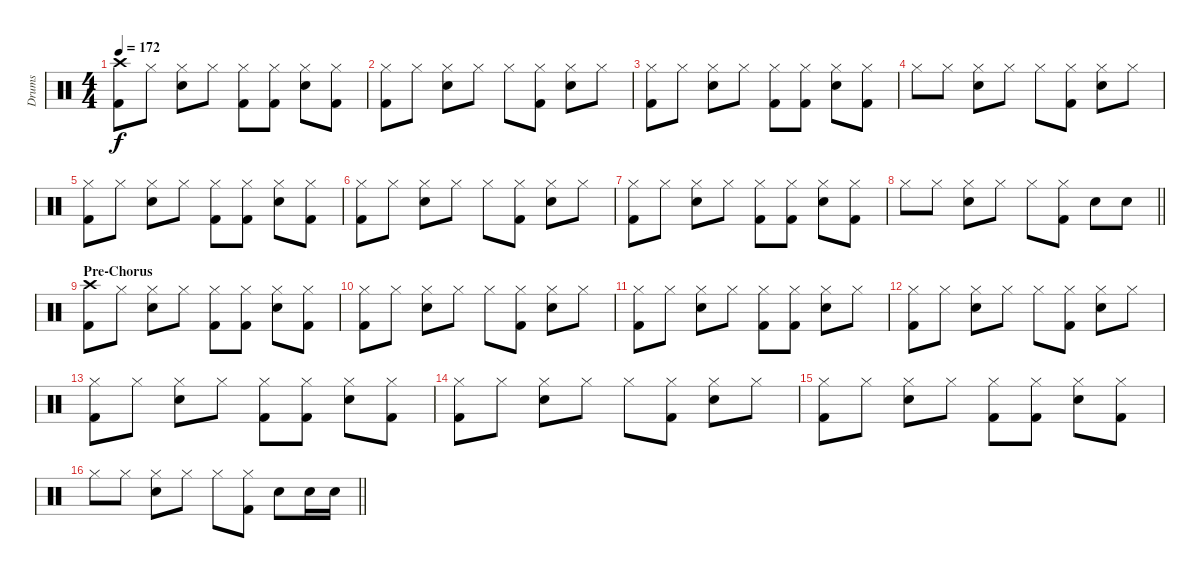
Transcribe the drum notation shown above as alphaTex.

\track ("Drums" "Drums") {instrument percussion}
\staff {score}
\articulation defaults
\ts (4 4)
\tempo 172
\clef neutral
\ks c
("Crash high (hit)" "Kick (hit) 2").8{dy f} "Hi-Hat (closed)".8 ("Hi-Hat (closed)" "Electric Snare (hit)").8 "Hi-Hat (closed)".8 ("Hi-Hat (closed)" "Kick (hit) 2").8 ("Hi-Hat (closed)" "Kick (hit) 2").8 ("Hi-Hat (closed)" "Electric Snare (hit)").8 ("Hi-Hat (closed)" "Kick (hit) 2").8 |
("Hi-Hat (closed)" "Kick (hit) 2").8 "Hi-Hat (closed)".8 ("Hi-Hat (closed)" "Electric Snare (hit)").8 "Hi-Hat (closed)".8 "Hi-Hat (closed)".8 ("Hi-Hat (closed)" "Kick (hit) 2").8 ("Hi-Hat (closed)" "Electric Snare (hit)").8 "Hi-Hat (closed)".8 |
("Hi-Hat (closed)" "Kick (hit) 2").8 "Hi-Hat (closed)".8 ("Hi-Hat (closed)" "Electric Snare (hit)").8 "Hi-Hat (closed)".8 ("Hi-Hat (closed)" "Kick (hit) 2").8 ("Hi-Hat (closed)" "Kick (hit) 2").8 ("Hi-Hat (closed)" "Electric Snare (hit)").8 ("Hi-Hat (closed)" "Kick (hit) 2").8 |
"Hi-Hat (closed)".8 "Hi-Hat (closed)".8 ("Hi-Hat (closed)" "Electric Snare (hit)").8 "Hi-Hat (closed)".8 "Hi-Hat (closed)".8 ("Hi-Hat (closed)" "Kick (hit) 2").8 ("Hi-Hat (closed)" "Electric Snare (hit)").8 "Hi-Hat (closed)".8 |
("Hi-Hat (closed)" "Kick (hit) 2").8 "Hi-Hat (closed)".8 ("Hi-Hat (closed)" "Electric Snare (hit)").8 "Hi-Hat (closed)".8 ("Hi-Hat (closed)" "Kick (hit) 2").8 ("Hi-Hat (closed)" "Kick (hit) 2").8 ("Hi-Hat (closed)" "Electric Snare (hit)").8 ("Hi-Hat (closed)" "Kick (hit) 2").8 |
("Hi-Hat (closed)" "Kick (hit) 2").8 "Hi-Hat (closed)".8 ("Hi-Hat (closed)" "Electric Snare (hit)").8 "Hi-Hat (closed)".8 "Hi-Hat (closed)".8 ("Hi-Hat (closed)" "Kick (hit) 2").8 ("Hi-Hat (closed)" "Electric Snare (hit)").8 "Hi-Hat (closed)".8 |
("Hi-Hat (closed)" "Kick (hit) 2").8 "Hi-Hat (closed)".8 ("Hi-Hat (closed)" "Electric Snare (hit)").8 "Hi-Hat (closed)".8 ("Hi-Hat (closed)" "Kick (hit) 2").8 ("Hi-Hat (closed)" "Kick (hit) 2").8 ("Hi-Hat (closed)" "Electric Snare (hit)").8 ("Hi-Hat (closed)" "Kick (hit) 2").8 |
\barLineRight lightlight "Hi-Hat (closed)".8 "Hi-Hat (closed)".8
("Hi-Hat (closed)" "Electric Snare (hit)").8 "Hi-Hat (closed)".8 "Hi-Hat (closed)".8 ("Hi-Hat (closed)" "Kick (hit) 2").8 "Electric Snare (hit)".8 "Electric Snare (hit)".8 |
\section ("" "Pre-Chorus")
("Crash high (hit)" "Kick (hit) 2").8 "Hi-Hat (closed)".8 ("Hi-Hat (closed)" "Electric Snare (hit)").8 "Hi-Hat (closed)".8 ("Hi-Hat (closed)" "Kick (hit) 2").8 ("Hi-Hat (closed)" "Kick (hit) 2").8 ("Hi-Hat (closed)" "Electric Snare (hit)").8 ("Hi-Hat (closed)" "Kick (hit) 2").8 |
("Hi-Hat (closed)" "Kick (hit) 2").8 "Hi-Hat (closed)".8 ("Hi-Hat (closed)" "Electric Snare (hit)").8 "Hi-Hat (closed)".8 "Hi-Hat (closed)".8 ("Hi-Hat (closed)" "Kick (hit) 2").8 ("Hi-Hat (closed)" "Electric Snare (hit)").8 "Hi-Hat (closed)".8 |
("Hi-Hat (closed)" "Kick (hit) 2").8 "Hi-Hat (closed)".8 ("Hi-Hat (closed)" "Electric Snare (hit)").8 "Hi-Hat (closed)".8 ("Hi-Hat (closed)" "Kick (hit) 2").8 ("Hi-Hat (closed)" "Kick (hit) 2").8 ("Hi-Hat (closed)" "Electric Snare (hit)").8 "Hi-Hat (closed)".8 |
("Hi-Hat (closed)" "Kick (hit) 2").8 "Hi-Hat (closed)".8 ("Hi-Hat (closed)" "Electric Snare (hit)").8 "Hi-Hat (closed)".8 "Hi-Hat (closed)".8 ("Hi-Hat (closed)" "Kick (hit) 2").8 ("Hi-Hat (closed)" "Electric Snare (hit)").8 "Hi-Hat (closed)".8 |
("Hi-Hat (closed)" "Kick (hit) 2").8 "Hi-Hat (closed)".8 ("Hi-Hat (closed)" "Electric Snare (hit)").8 "Hi-Hat (closed)".8 ("Hi-Hat (closed)" "Kick (hit) 2").8 ("Hi-Hat (closed)" "Kick (hit) 2").8 ("Hi-Hat (closed)" "Electric Snare (hit)").8 ("Hi-Hat (closed)" "Kick (hit) 2").8 |
("Hi-Hat (closed)" "Kick (hit) 2").8 "Hi-Hat (closed)".8 ("Hi-Hat (closed)" "Electric Snare (hit)").8 "Hi-Hat (closed)".8 "Hi-Hat (closed)".8 ("Hi-Hat (closed)" "Kick (hit) 2").8 ("Hi-Hat (closed)" "Electric Snare (hit)").8 "Hi-Hat (closed)".8 |
("Hi-Hat (closed)" "Kick (hit) 2").8 "Hi-Hat (closed)".8 ("Hi-Hat (closed)" "Electric Snare (hit)").8 "Hi-Hat (closed)".8 ("Hi-Hat (closed)" "Kick (hit) 2").8 ("Hi-Hat (closed)" "Kick (hit) 2").8 ("Hi-Hat (closed)" "Electric Snare (hit)").8 ("Hi-Hat (closed)" "Kick (hit) 2").8 |
\barLineRight lightlight "Hi-Hat (closed)".8 "Hi-Hat (closed)".8
("Hi-Hat (closed)" "Electric Snare (hit)").8 "Hi-Hat (closed)".8 "Hi-Hat (closed)".8 ("Hi-Hat (closed)" "Kick (hit) 2").8 "Electric Snare (hit)".8 "Electric Snare (hit)".16 "Electric Snare (hit)".16
